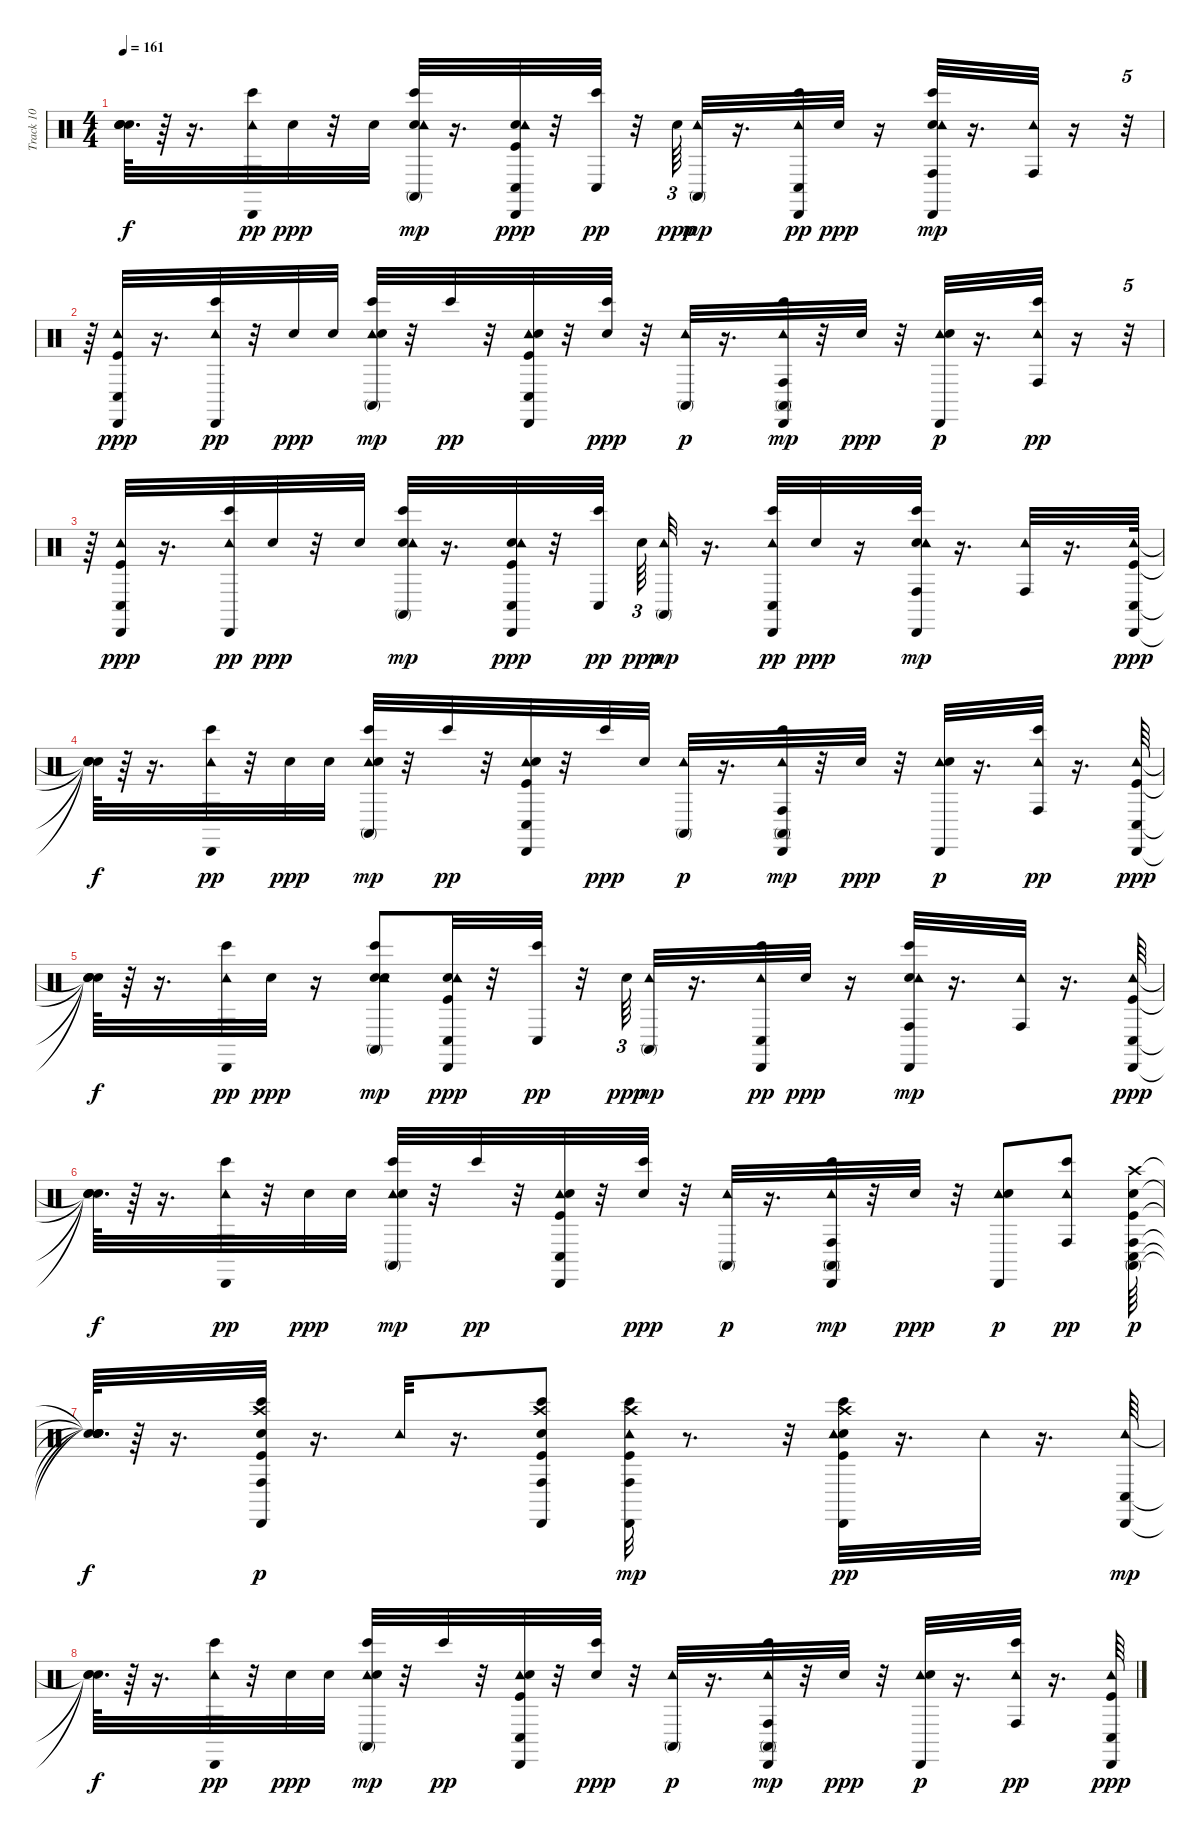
\track ("Track 10" "Track 10") {instrument percussion}
\staff {score}
\articulation defaults
\ts (4 4)
\tempo 161
\clef neutral
\ks c
("Snare (hit)"{t} "Snare (hit)"{t} "Snare (hit)"{t} "Snare (hit)"{t}).64{d dy f} r.64 r.16{d} ("Tambourine (hit)" "Cabasa (hit)" "Bongo High (hit)").32{dy pp} "Electric Snare (hit)".32{dy ppp} r.32 "Electric Snare (hit)".32 ("Electric Snare (hit)" "Tambourine (hit)" "Bongo High (hit)" "Conga high (mute)").32{dy mp} r.16{d} ("Kick (hit)" "Electric Snare (hit)" "Tambourine (hit)" "Cabasa (hit)" "Conga low (hit)").32{dy ppp} r.32 ("Bongo High (hit)" "Conga low (hit)").32{dy pp} r.32 "Electric Snare (hit)".64{tu (3 2) dy ppp} ("Tambourine (hit)" "Conga high (mute)").32{dy mp} r.16{d} ("Bongo High (hit)" "Tambourine (hit)" "Cabasa (hit)" "Conga low (hit)").32{dy pp} "Electric Snare (hit)".32{dy ppp} r.16 ("Electric Snare (hit)" "Bongo High (hit)" "Tambourine (hit)" "Cabasa (hit)" "Conga high (hit)").32{dy mp} r.16{d} ("Tambourine (hit)" "Conga high (hit)").32 r.16 r.32{tu (5 4)} |
r.64 ("Kick (hit)" "Tambourine (hit)" "Cabasa (hit)" "Conga low (hit)").32{dy ppp} r.16{d} ("Tambourine (hit)" "Cabasa (hit)" "Bongo High (hit)").32{dy pp} r.32 "Electric Snare (hit)".32{dy ppp} "Electric Snare (hit)".32 ("Tambourine (hit)" "Bongo High (hit)" "Conga high (mute)" "Electric Snare (hit)").32{dy mp} r.32 "Bongo High (hit)".32{dy pp} r.32 ("Tambourine (hit)" "Conga low (hit)" "Cabasa (hit)" "Kick (hit)" "Electric Snare (hit)").32 r.32 ("Bongo High (hit)" "Electric Snare (hit)").32{dy ppp} r.32 ("Tambourine (hit)" "Conga high (mute)").32{dy p} r.16{d} ("Tambourine (hit)" "Cabasa (hit)" "Bongo High (hit)" "Conga high (mute)" "Conga high (hit)").32{dy mp} r.32 "Electric Snare (hit)".32{dy ppp} r.32 ("Tambourine (hit)" "Cabasa (hit)" "Electric Snare (hit)").32{dy p} r.16{d} ("Tambourine (hit)" "Conga high (hit)" "Bongo High (hit)").32{dy pp} r.16 r.32{tu (5 4)} |
r.64 ("Kick (hit)" "Tambourine (hit)" "Cabasa (hit)" "Conga low (hit)").32{dy ppp} r.16{d} ("Tambourine (hit)" "Cabasa (hit)" "Bongo High (hit)").32{dy pp} "Electric Snare (hit)".32{dy ppp} r.32 "Electric Snare (hit)".32 ("Electric Snare (hit)" "Tambourine (hit)" "Bongo High (hit)" "Conga high (mute)").32{dy mp} r.16{d} ("Kick (hit)" "Electric Snare (hit)" "Tambourine (hit)" "Cabasa (hit)" "Conga low (hit)").32{dy ppp} r.32 ("Bongo High (hit)" "Conga low (hit)").32{dy pp beam splitsecondary} "Electric Snare (hit)".64{tu (3 2) dy ppp} ("Tambourine (hit)" "Conga high (mute)").32{dy mp} r.16{d} ("Bongo High (hit)" "Tambourine (hit)" "Cabasa (hit)" "Conga low (hit)").32{dy pp} "Electric Snare (hit)".32{dy ppp} r.16 ("Electric Snare (hit)" "Bongo High (hit)" "Tambourine (hit)" "Cabasa (hit)" "Conga high (hit)").32{dy mp} r.16{d} ("Tambourine (hit)" "Conga high (hit)").32 r.16{d} ("Kick (hit)" "Tambourine (hit)" "Cabasa (hit)" "Conga low (hit)").64{dy ppp} |
("Snare (hit)"{t} "Snare (hit)"{t} "Snare (hit)"{t} "Snare (hit)"{t}).64{dy f} r.64 r.16{d} ("Tambourine (hit)" "Cabasa (hit)" "Bongo High (hit)").32{dy pp} r.32 "Electric Snare (hit)".32{dy ppp} "Electric Snare (hit)".32 ("Tambourine (hit)" "Bongo High (hit)" "Conga high (mute)" "Electric Snare (hit)").32{dy mp} r.32 "Bongo High (hit)".32{dy pp} r.32 ("Tambourine (hit)" "Conga low (hit)" "Cabasa (hit)" "Kick (hit)" "Electric Snare (hit)").32 r.32 "Bongo High (hit)".32{dy ppp} "Electric Snare (hit)".32 ("Tambourine (hit)" "Conga high (mute)").32{dy p} r.16{d} ("Tambourine (hit)" "Cabasa (hit)" "Bongo High (hit)" "Conga high (mute)" "Conga high (hit)").32{dy mp} r.32 "Electric Snare (hit)".32{dy ppp} r.32 ("Tambourine (hit)" "Cabasa (hit)" "Electric Snare (hit)").32{dy p} r.16{d} ("Tambourine (hit)" "Conga high (hit)" "Bongo High (hit)").32{dy pp} r.16{d} ("Kick (hit)" "Tambourine (hit)" "Cabasa (hit)" "Conga low (hit)").64{dy ppp} |
("Snare (hit)"{t} "Snare (hit)"{t} "Snare (hit)"{t} "Snare (hit)"{t}).64{dy f} r.64 r.16{d} ("Tambourine (hit)" "Cabasa (hit)" "Bongo High (hit)").32{dy pp} "Electric Snare (hit)".32{dy ppp} r.16 ("Electric Snare (hit)" "Electric Snare (hit)" "Tambourine (hit)" "Bongo High (hit)" "Conga high (mute)").8{dy mp} ("Kick (hit)" "Electric Snare (hit)" "Tambourine (hit)" "Cabasa (hit)" "Conga low (hit)").32{dy ppp} r.32 ("Bongo High (hit)" "Conga low (hit)").32{dy pp} r.32 "Electric Snare (hit)".64{tu (3 2) dy ppp} ("Tambourine (hit)" "Conga high (mute)").32{dy mp} r.16{d} ("Bongo High (hit)" "Tambourine (hit)" "Cabasa (hit)" "Conga low (hit)").32{dy pp} "Electric Snare (hit)".32{dy ppp} r.16 ("Electric Snare (hit)" "Bongo High (hit)" "Tambourine (hit)" "Cabasa (hit)" "Conga high (hit)").32{dy mp} r.16{d} ("Tambourine (hit)" "Conga high (hit)").32 r.16{d} ("Kick (hit)" "Tambourine (hit)" "Cabasa (hit)" "Conga low (hit)").64{dy ppp} |
("Snare (hit)"{t} "Snare (hit)"{t} "Snare (hit)"{t} "Snare (hit)"{t}).64{d dy f} r.64 r.16{d} ("Tambourine (hit)" "Cabasa (hit)" "Bongo High (hit)").32{dy pp} r.32 "Electric Snare (hit)".32{dy ppp} "Electric Snare (hit)".32 ("Tambourine (hit)" "Bongo High (hit)" "Conga high (mute)" "Electric Snare (hit)").32{dy mp} r.32 "Bongo High (hit)".32{dy pp} r.32 ("Tambourine (hit)" "Conga low (hit)" "Cabasa (hit)" "Kick (hit)" "Electric Snare (hit)").32 r.32 ("Bongo High (hit)" "Electric Snare (hit)").32{dy ppp} r.32 ("Tambourine (hit)" "Conga high (mute)").32{dy p} r.16{d} ("Tambourine (hit)" "Cabasa (hit)" "Bongo High (hit)" "Conga high (mute)" "Conga high (hit)").32{dy mp} r.32 "Electric Snare (hit)".32{dy ppp} r.32 ("Tambourine (hit)" "Cabasa (hit)" "Electric Snare (hit)").8{dy p} ("Tambourine (hit)" "Conga high (hit)" "Bongo High (hit)").8{dy pp} ("Conga low (hit)" "Conga high (hit)" "Conga high (mute)" "Electric Snare (hit)" "Crash high (hit)" "Kick (hit)").64{dy p} |
("Snare (hit)"{t} "Snare (hit)"{t} "Snare (hit)"{t} "Snare (hit)"{t} "Snare (hit)"{t} "Snare (hit)"{t}).64{d dy f} r.64 r.16{d} ("Conga high (hit)" "Bongo High (hit)" "Cabasa (hit)" "Kick (hit)" "Electric Snare (hit)" "Crash high (hit)").32{dy p} r.16{d} "Tambourine (hit)".32 r.16{d} ("Conga high (hit)" "Kick (hit)" "Bongo High (hit)" "Cabasa (hit)" "Electric Snare (hit)" "Crash high (hit)").8 ("Conga high (hit)" "Cabasa (hit)" "Bongo High (hit)" "Crash high (hit)" "Kick (hit)" "Tambourine (hit)").32{dy mp} r.8{d} r.32 ("Crash high (hit)" "Bongo High (hit)" "Kick (hit)" "Electric Snare (hit)" "Tambourine (hit)" "Cabasa (hit)").32{dy pp} r.16{d} "Tambourine (hit)".32 r.16{d} ("Cabasa (hit)" "Conga low (hit)" "Tambourine (hit)").64{dy mp} |
("Snare (hit)"{t} "Snare (hit)"{t} "Snare (hit)"{t}).64{d dy f} r.64 r.16{d} ("Tambourine (hit)" "Cabasa (hit)" "Bongo High (hit)").32{dy pp} r.32 "Electric Snare (hit)".32{dy ppp} "Electric Snare (hit)".32 ("Tambourine (hit)" "Bongo High (hit)" "Conga high (mute)" "Electric Snare (hit)").32{dy mp} r.32 "Bongo High (hit)".32{dy pp} r.32 ("Tambourine (hit)" "Conga low (hit)" "Cabasa (hit)" "Kick (hit)" "Electric Snare (hit)").32 r.32 ("Bongo High (hit)" "Electric Snare (hit)").32{dy ppp} r.32 ("Tambourine (hit)" "Conga high (mute)").32{dy p} r.16{d} ("Tambourine (hit)" "Cabasa (hit)" "Bongo High (hit)" "Conga high (mute)" "Conga high (hit)").32{dy mp} r.32 "Electric Snare (hit)".32{dy ppp} r.32 ("Tambourine (hit)" "Cabasa (hit)" "Electric Snare (hit)").32{dy p} r.16{d} ("Tambourine (hit)" "Conga high (hit)" "Bongo High (hit)").32{dy pp} r.16{d} ("Kick (hit)" "Tambourine (hit)" "Cabasa (hit)" "Conga low (hit)").64{dy ppp}
